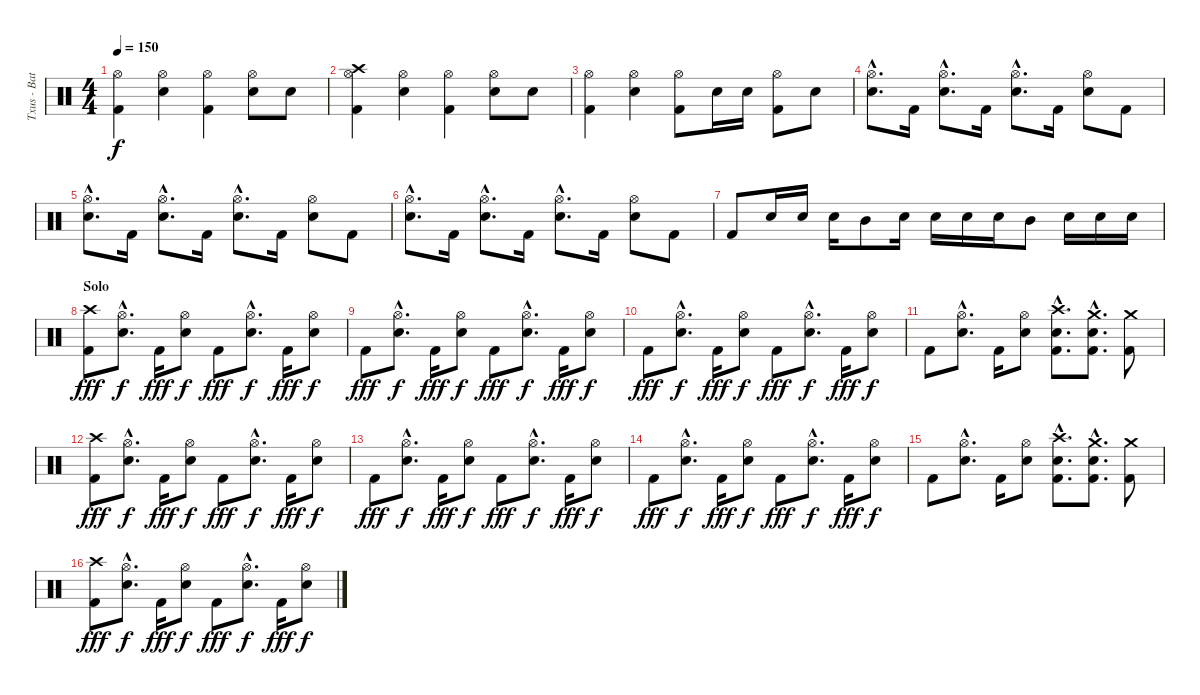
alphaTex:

\track ("Txus - Batería" "Txus - Bat") {instrument percussion}
\staff {score}
\articulation defaults
\ts (4 4)
\tempo 150
\clef neutral
\ks c
("Hi-Hat (open)" "Kick (hit) 2").4{dy f} ("Hi-Hat (open)" "Electric Snare (hit)").4 ("Hi-Hat (open)" "Kick (hit) 2").4 ("Hi-Hat (open)" "Electric Snare (hit)").8 "Electric Snare (hit)".8 |
("Crash high (hit)" "Hi-Hat (open)" "Kick (hit) 2").4 ("Hi-Hat (open)" "Electric Snare (hit)").4 ("Hi-Hat (open)" "Kick (hit) 2").4 ("Hi-Hat (open)" "Electric Snare (hit)").8 "Electric Snare (hit)".8 |
("Hi-Hat (open)" "Kick (hit) 2").4 ("Hi-Hat (open)" "Electric Snare (hit)").4 ("Hi-Hat (open)" "Kick (hit) 2").8 "Electric Snare (hit)".16 "Electric Snare (hit)".16 ("Hi-Hat (open)" "Kick (hit) 2").8 "Electric Snare (hit)".8 |
("Hi-Hat (open)"{hac} "Electric Snare (hit)"{hac}).8{d} "Kick (hit) 2".16 ("Hi-Hat (open)"{hac} "Electric Snare (hit)"{hac}).8{d} "Kick (hit) 2".16 ("Hi-Hat (open)"{hac} "Electric Snare (hit)"{hac}).8{d} "Kick (hit) 2".16 ("Hi-Hat (open)" "Electric Snare (hit)").8 "Kick (hit) 2".8 |
("Hi-Hat (open)"{hac} "Electric Snare (hit)"{hac}).8{d} "Kick (hit) 2".16 ("Hi-Hat (open)"{hac} "Electric Snare (hit)"{hac}).8{d} "Kick (hit) 2".16 ("Hi-Hat (open)"{hac} "Electric Snare (hit)"{hac}).8{d} "Kick (hit) 2".16 ("Hi-Hat (open)" "Electric Snare (hit)").8 "Kick (hit) 2".8 |
("Hi-Hat (open)"{hac} "Electric Snare (hit)"{hac}).8{d} "Kick (hit) 2".16 ("Hi-Hat (open)"{hac} "Electric Snare (hit)"{hac}).8{d} "Kick (hit) 2".16 ("Hi-Hat (open)"{hac} "Electric Snare (hit)"{hac}).8{d} "Kick (hit) 2".16 ("Hi-Hat (open)" "Electric Snare (hit)").8 "Kick (hit) 2".8 |
"Kick (hit) 2".8 "Electric Snare (hit)".16 "Electric Snare (hit)".16 "Electric Snare (hit)".16 "Mid Tom (hit)".8 "Electric Snare (hit)".16 "Electric Snare (hit)".16 "Electric Snare (hit)".16 "Electric Snare (hit)".16 "Mid Tom (hit)".8 "Electric Snare (hit)".16 "Electric Snare (hit)".16 "Electric Snare (hit)".16 |
\section ("" "Solo")
("Crash high (hit)" "Kick (hit) 2").8{dy fff} ("Hi-Hat (open)"{hac} "Electric Snare (hit)"{hac}).8{d dy f} "Kick (hit) 2".16{dy fff} ("Hi-Hat (open)" "Electric Snare (hit)").8{dy f} "Kick (hit) 2".8{dy fff} ("Hi-Hat (open)"{hac} "Electric Snare (hit)"{hac}).8{d dy f} "Kick (hit) 2".16{dy fff} ("Hi-Hat (open)" "Electric Snare (hit)").8{dy f} |
"Kick (hit) 2".8{dy fff} ("Hi-Hat (open)"{hac} "Electric Snare (hit)"{hac}).8{d dy f} "Kick (hit) 2".16{dy fff} ("Hi-Hat (open)" "Electric Snare (hit)").8{dy f} "Kick (hit) 2".8{dy fff} ("Hi-Hat (open)"{hac} "Electric Snare (hit)"{hac}).8{d dy f} "Kick (hit) 2".16{dy fff} ("Hi-Hat (open)" "Electric Snare (hit)").8{dy f} |
"Kick (hit) 2".8{dy fff} ("Hi-Hat (open)"{hac} "Electric Snare (hit)"{hac}).8{d dy f} "Kick (hit) 2".16{dy fff} ("Hi-Hat (open)" "Electric Snare (hit)").8{dy f} "Kick (hit) 2".8{dy fff} ("Hi-Hat (open)"{hac} "Electric Snare (hit)"{hac}).8{d dy f} "Kick (hit) 2".16{dy fff} ("Hi-Hat (open)" "Electric Snare (hit)").8{dy f} |
"Kick (hit) 2".8 ("Hi-Hat (open)"{hac} "Electric Snare (hit)"{hac}).8{d} "Kick (hit) 2".16 ("Hi-Hat (open)" "Electric Snare (hit)").8 ("Crash high (hit)"{hac} "Electric Snare (hit)"{hac} "Kick (hit) 2"{hac}).8{d} ("Crash medium (hit)"{hac} "Electric Snare (hit)"{hac} "Kick (hit) 2"{hac}).8{d} ("Crash medium (hit)" "Kick (hit) 2").8 |
("Crash high (hit)" "Kick (hit) 2").8{dy fff} ("Hi-Hat (open)"{hac} "Electric Snare (hit)"{hac}).8{d dy f} "Kick (hit) 2".16{dy fff} ("Hi-Hat (open)" "Electric Snare (hit)").8{dy f} "Kick (hit) 2".8{dy fff} ("Hi-Hat (open)"{hac} "Electric Snare (hit)"{hac}).8{d dy f} "Kick (hit) 2".16{dy fff} ("Hi-Hat (open)" "Electric Snare (hit)").8{dy f} |
"Kick (hit) 2".8{dy fff} ("Hi-Hat (open)"{hac} "Electric Snare (hit)"{hac}).8{d dy f} "Kick (hit) 2".16{dy fff} ("Hi-Hat (open)" "Electric Snare (hit)").8{dy f} "Kick (hit) 2".8{dy fff} ("Hi-Hat (open)"{hac} "Electric Snare (hit)"{hac}).8{d dy f} "Kick (hit) 2".16{dy fff} ("Hi-Hat (open)" "Electric Snare (hit)").8{dy f} |
"Kick (hit) 2".8{dy fff} ("Hi-Hat (open)"{hac} "Electric Snare (hit)"{hac}).8{d dy f} "Kick (hit) 2".16{dy fff} ("Hi-Hat (open)" "Electric Snare (hit)").8{dy f} "Kick (hit) 2".8{dy fff} ("Hi-Hat (open)"{hac} "Electric Snare (hit)"{hac}).8{d dy f} "Kick (hit) 2".16{dy fff} ("Hi-Hat (open)" "Electric Snare (hit)").8{dy f} |
"Kick (hit) 2".8 ("Hi-Hat (open)"{hac} "Electric Snare (hit)"{hac}).8{d} "Kick (hit) 2".16 ("Hi-Hat (open)" "Electric Snare (hit)").8 ("Crash high (hit)"{hac} "Electric Snare (hit)"{hac} "Kick (hit) 2"{hac}).8{d} ("Crash medium (hit)"{hac} "Electric Snare (hit)"{hac} "Kick (hit) 2"{hac}).8{d} ("Crash medium (hit)" "Kick (hit) 2").8 |
("Crash high (hit)" "Kick (hit) 2").8{dy fff} ("Hi-Hat (open)"{hac} "Electric Snare (hit)"{hac}).8{d dy f} "Kick (hit) 2".16{dy fff} ("Hi-Hat (open)" "Electric Snare (hit)").8{dy f} "Kick (hit) 2".8{dy fff} ("Hi-Hat (open)"{hac} "Electric Snare (hit)"{hac}).8{d dy f} "Kick (hit) 2".16{dy fff} ("Hi-Hat (open)" "Electric Snare (hit)").8{dy f}
